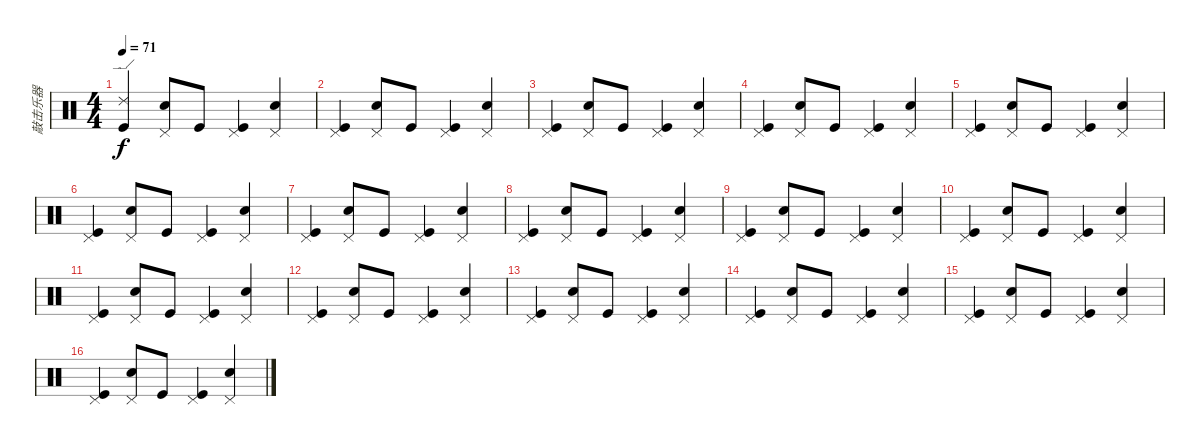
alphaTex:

\track ("敲击乐器" "敲击乐器") {instrument percussion}
\staff {score}
\articulation defaults
\ts (4 4)
\tempo 71
\clef neutral
\ks c
("Ride (edge) 2" "Kick (hit)").4{dy f} ("Pedal Hi-Hat (hit)" "Snare (hit) 2").8 "Kick (hit)".8 ("Pedal Hi-Hat (hit)" "Kick (hit)").4 ("Pedal Hi-Hat (hit)" "Snare (hit) 2").4 |
("Pedal Hi-Hat (hit)" "Kick (hit)").4 ("Pedal Hi-Hat (hit)" "Snare (hit) 2").8 "Kick (hit)".8 ("Pedal Hi-Hat (hit)" "Kick (hit)").4 ("Pedal Hi-Hat (hit)" "Snare (hit) 2").4 |
("Pedal Hi-Hat (hit)" "Kick (hit)").4 ("Pedal Hi-Hat (hit)" "Snare (hit) 2").8 "Kick (hit)".8 ("Pedal Hi-Hat (hit)" "Kick (hit)").4 ("Pedal Hi-Hat (hit)" "Snare (hit) 2").4 |
("Pedal Hi-Hat (hit)" "Kick (hit)").4 ("Pedal Hi-Hat (hit)" "Snare (hit) 2").8 "Kick (hit)".8 ("Pedal Hi-Hat (hit)" "Kick (hit)").4 ("Pedal Hi-Hat (hit)" "Snare (hit) 2").4 |
("Pedal Hi-Hat (hit)" "Kick (hit)").4 ("Pedal Hi-Hat (hit)" "Snare (hit) 2").8 "Kick (hit)".8 ("Pedal Hi-Hat (hit)" "Kick (hit)").4 ("Pedal Hi-Hat (hit)" "Snare (hit) 2").4 |
("Pedal Hi-Hat (hit)" "Kick (hit)").4 ("Pedal Hi-Hat (hit)" "Snare (hit) 2").8 "Kick (hit)".8 ("Pedal Hi-Hat (hit)" "Kick (hit)").4 ("Pedal Hi-Hat (hit)" "Snare (hit) 2").4 |
("Pedal Hi-Hat (hit)" "Kick (hit)").4 ("Pedal Hi-Hat (hit)" "Snare (hit) 2").8 "Kick (hit)".8 ("Pedal Hi-Hat (hit)" "Kick (hit)").4 ("Pedal Hi-Hat (hit)" "Snare (hit) 2").4 |
("Pedal Hi-Hat (hit)" "Kick (hit)").4 ("Pedal Hi-Hat (hit)" "Snare (hit) 2").8 "Kick (hit)".8 ("Pedal Hi-Hat (hit)" "Kick (hit)").4 ("Pedal Hi-Hat (hit)" "Snare (hit) 2").4 |
("Pedal Hi-Hat (hit)" "Kick (hit)").4 ("Pedal Hi-Hat (hit)" "Snare (hit) 2").8 "Kick (hit)".8 ("Pedal Hi-Hat (hit)" "Kick (hit)").4 ("Pedal Hi-Hat (hit)" "Snare (hit) 2").4 |
("Pedal Hi-Hat (hit)" "Kick (hit)").4 ("Pedal Hi-Hat (hit)" "Snare (hit) 2").8 "Kick (hit)".8 ("Pedal Hi-Hat (hit)" "Kick (hit)").4 ("Pedal Hi-Hat (hit)" "Snare (hit) 2").4 |
("Pedal Hi-Hat (hit)" "Kick (hit)").4 ("Pedal Hi-Hat (hit)" "Snare (hit) 2").8 "Kick (hit)".8 ("Pedal Hi-Hat (hit)" "Kick (hit)").4 ("Pedal Hi-Hat (hit)" "Snare (hit) 2").4 |
("Pedal Hi-Hat (hit)" "Kick (hit)").4 ("Pedal Hi-Hat (hit)" "Snare (hit) 2").8 "Kick (hit)".8 ("Pedal Hi-Hat (hit)" "Kick (hit)").4 ("Pedal Hi-Hat (hit)" "Snare (hit) 2").4 |
("Pedal Hi-Hat (hit)" "Kick (hit)").4 ("Pedal Hi-Hat (hit)" "Snare (hit) 2").8 "Kick (hit)".8 ("Pedal Hi-Hat (hit)" "Kick (hit)").4 ("Pedal Hi-Hat (hit)" "Snare (hit) 2").4 |
("Pedal Hi-Hat (hit)" "Kick (hit)").4 ("Pedal Hi-Hat (hit)" "Snare (hit) 2").8 "Kick (hit)".8 ("Pedal Hi-Hat (hit)" "Kick (hit)").4 ("Pedal Hi-Hat (hit)" "Snare (hit) 2").4 |
("Pedal Hi-Hat (hit)" "Kick (hit)").4 ("Pedal Hi-Hat (hit)" "Snare (hit) 2").8 "Kick (hit)".8 ("Pedal Hi-Hat (hit)" "Kick (hit)").4 ("Pedal Hi-Hat (hit)" "Snare (hit) 2").4 |
("Pedal Hi-Hat (hit)" "Kick (hit)").4 ("Pedal Hi-Hat (hit)" "Snare (hit) 2").8 "Kick (hit)".8 ("Pedal Hi-Hat (hit)" "Kick (hit)").4 ("Pedal Hi-Hat (hit)" "Snare (hit) 2").4
